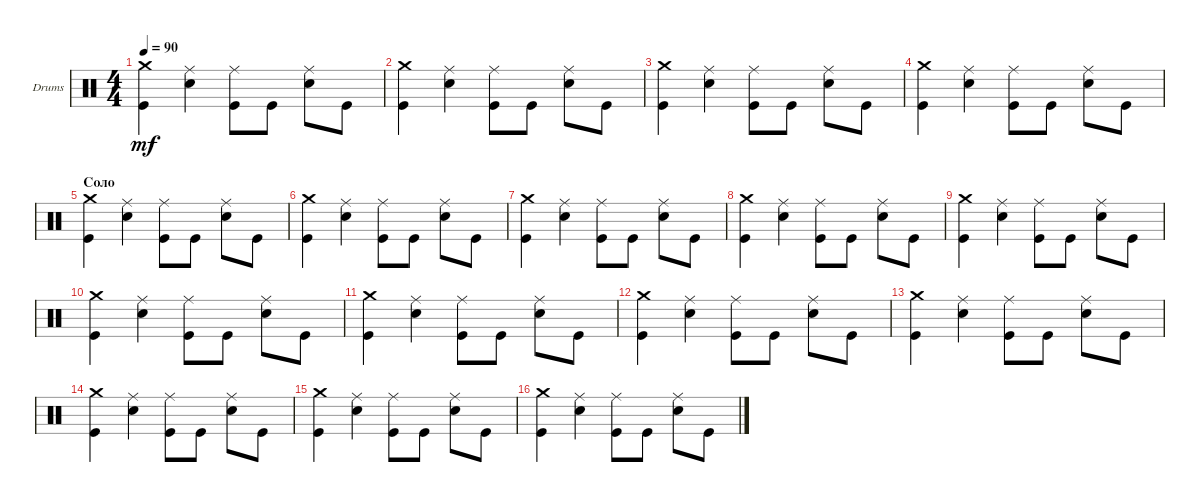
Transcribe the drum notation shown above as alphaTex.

\bracketExtendMode groupsimilarinstruments
\firstSystemTrackNameOrientation horizontal
\otherSystemsTrackNameOrientation horizontal
\track ("Drumkit" "Drums") {instrument percussion}
\staff {score}
\articulation defaults
\ts (4 4)
\tempo 90
\clef neutral
\ks c
("Kick (hit)" "Crash medium (hit)").4{dy mf} ("Snare (hit) 2" "Ride (middle)").4 ("Kick (hit)" "Ride (middle)").8 "Kick (hit)".8 ("Snare (hit) 2" "Ride (middle)").8 "Kick (hit)".8 |
("Kick (hit)" "Crash medium (hit)").4 ("Snare (hit) 2" "Ride (middle)").4 ("Kick (hit)" "Ride (middle)").8 "Kick (hit)".8 ("Snare (hit) 2" "Ride (middle)").8 "Kick (hit)".8 |
("Kick (hit)" "Crash medium (hit)").4 ("Snare (hit) 2" "Ride (middle)").4 ("Kick (hit)" "Ride (middle)").8 "Kick (hit)".8 ("Snare (hit) 2" "Ride (middle)").8 "Kick (hit)".8 |
("Kick (hit)" "Crash medium (hit)").4 ("Snare (hit) 2" "Ride (middle)").4 ("Kick (hit)" "Ride (middle)").8 "Kick (hit)".8 ("Snare (hit) 2" "Ride (middle)").8 "Kick (hit)".8 |
\section ("" "Соло")
("Kick (hit)" "Crash medium (hit)").4 ("Snare (hit) 2" "Ride (middle)").4 ("Kick (hit)" "Ride (middle)").8 "Kick (hit)".8 ("Snare (hit) 2" "Ride (middle)").8 "Kick (hit)".8 |
("Kick (hit)" "Crash medium (hit)").4 ("Snare (hit) 2" "Ride (middle)").4 ("Kick (hit)" "Ride (middle)").8 "Kick (hit)".8 ("Snare (hit) 2" "Ride (middle)").8 "Kick (hit)".8 |
("Kick (hit)" "Crash medium (hit)").4 ("Snare (hit) 2" "Ride (middle)").4 ("Kick (hit)" "Ride (middle)").8 "Kick (hit)".8 ("Snare (hit) 2" "Ride (middle)").8 "Kick (hit)".8 |
("Kick (hit)" "Crash medium (hit)").4 ("Snare (hit) 2" "Ride (middle)").4 ("Kick (hit)" "Ride (middle)").8 "Kick (hit)".8 ("Snare (hit) 2" "Ride (middle)").8 "Kick (hit)".8 |
("Kick (hit)" "Crash medium (hit)").4 ("Snare (hit) 2" "Ride (middle)").4 ("Kick (hit)" "Ride (middle)").8 "Kick (hit)".8 ("Snare (hit) 2" "Ride (middle)").8 "Kick (hit)".8 |
("Kick (hit)" "Crash medium (hit)").4 ("Snare (hit) 2" "Ride (middle)").4 ("Kick (hit)" "Ride (middle)").8 "Kick (hit)".8 ("Snare (hit) 2" "Ride (middle)").8 "Kick (hit)".8 |
("Kick (hit)" "Crash medium (hit)").4 ("Snare (hit) 2" "Ride (middle)").4 ("Kick (hit)" "Ride (middle)").8 "Kick (hit)".8 ("Snare (hit) 2" "Ride (middle)").8 "Kick (hit)".8 |
("Kick (hit)" "Crash medium (hit)").4 ("Snare (hit) 2" "Ride (middle)").4 ("Kick (hit)" "Ride (middle)").8 "Kick (hit)".8 ("Snare (hit) 2" "Ride (middle)").8 "Kick (hit)".8 |
("Kick (hit)" "Crash medium (hit)").4 ("Snare (hit) 2" "Ride (middle)").4 ("Kick (hit)" "Ride (middle)").8 "Kick (hit)".8 ("Snare (hit) 2" "Ride (middle)").8 "Kick (hit)".8 |
("Kick (hit)" "Crash medium (hit)").4 ("Snare (hit) 2" "Ride (middle)").4 ("Kick (hit)" "Ride (middle)").8 "Kick (hit)".8 ("Snare (hit) 2" "Ride (middle)").8 "Kick (hit)".8 |
("Kick (hit)" "Crash medium (hit)").4 ("Snare (hit) 2" "Ride (middle)").4 ("Kick (hit)" "Ride (middle)").8 "Kick (hit)".8 ("Snare (hit) 2" "Ride (middle)").8 "Kick (hit)".8 |
("Kick (hit)" "Crash medium (hit)").4 ("Snare (hit) 2" "Ride (middle)").4 ("Kick (hit)" "Ride (middle)").8 "Kick (hit)".8 ("Snare (hit) 2" "Ride (middle)").8 "Kick (hit)".8
